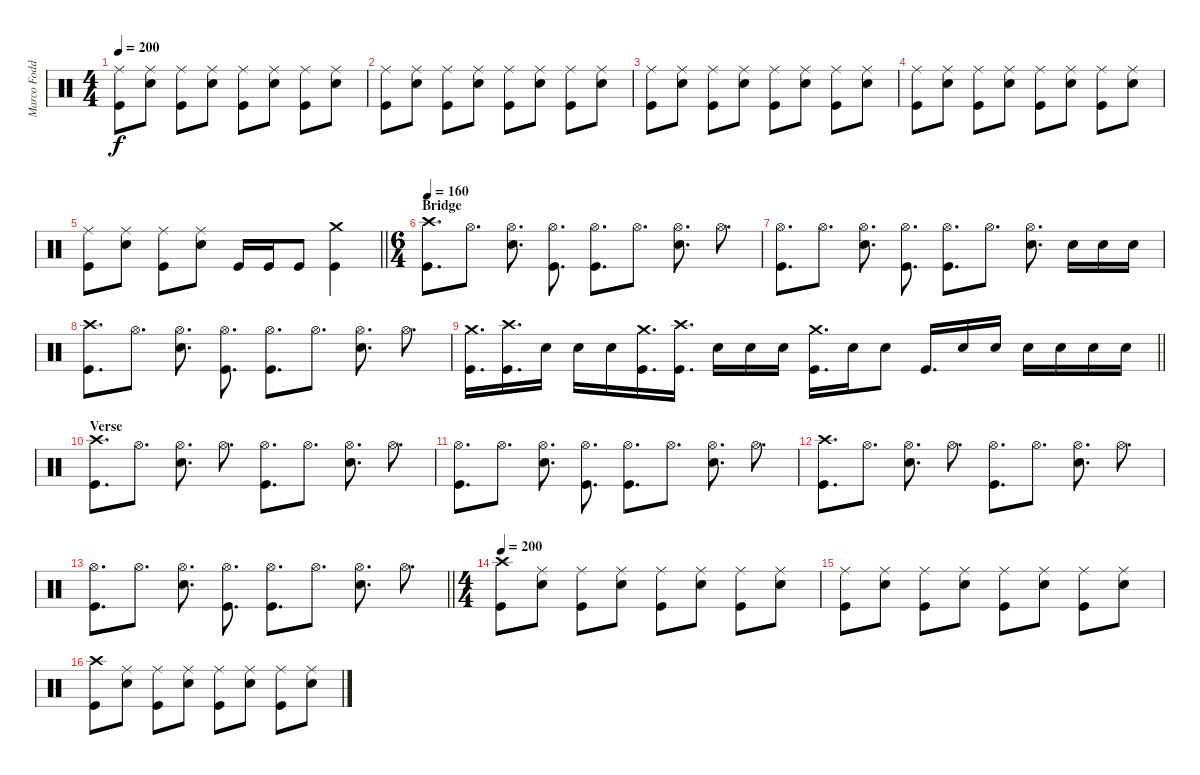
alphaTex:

\track ("Marco Foddis" "Marco Fodd") {instrument percussion}
\staff {score}
\articulation defaults
\ts (4 4)
\tempo 200
\clef neutral
\ks c
("Ride (middle)" "Kick (hit)").8{dy f} ("Ride (middle)" "Snare (hit) 2").8 ("Ride (middle)" "Kick (hit)").8 ("Ride (middle)" "Snare (hit) 2").8 ("Ride (middle)" "Kick (hit)").8 ("Ride (middle)" "Snare (hit) 2").8 ("Ride (middle)" "Kick (hit)").8 ("Ride (middle)" "Snare (hit) 2").8 |
("Ride (middle)" "Kick (hit)").8 ("Ride (middle)" "Snare (hit) 2").8 ("Ride (middle)" "Kick (hit)").8 ("Ride (middle)" "Snare (hit) 2").8 ("Ride (middle)" "Kick (hit)").8 ("Ride (middle)" "Snare (hit) 2").8 ("Ride (middle)" "Kick (hit)").8 ("Ride (middle)" "Snare (hit) 2").8 |
("Ride (middle)" "Kick (hit)").8 ("Ride (middle)" "Snare (hit) 2").8 ("Ride (middle)" "Kick (hit)").8 ("Ride (middle)" "Snare (hit) 2").8 ("Ride (middle)" "Kick (hit)").8 ("Ride (middle)" "Snare (hit) 2").8 ("Ride (middle)" "Kick (hit)").8 ("Ride (middle)" "Snare (hit) 2").8 |
("Ride (middle)" "Kick (hit)").8 ("Ride (middle)" "Snare (hit) 2").8 ("Ride (middle)" "Kick (hit)").8 ("Ride (middle)" "Snare (hit) 2").8 ("Ride (middle)" "Kick (hit)").8 ("Ride (middle)" "Snare (hit) 2").8 ("Ride (middle)" "Kick (hit)").8 ("Ride (middle)" "Snare (hit) 2").8 |
\barLineRight lightlight
("Ride (middle)" "Kick (hit)").8 ("Ride (middle)" "Snare (hit) 2").8 ("Ride (middle)" "Kick (hit)").8 ("Ride (middle)" "Snare (hit) 2").8 "Kick (hit)".16 "Kick (hit)".16 "Kick (hit)".8 ("Crash medium (hit)" "Kick (hit)").4 |
\ts (6 4)
\section ("" "Bridge")
\tempo 160
("Crash high (hit)" "Kick (hit)").8{d} "Hi-Hat (open)".8{d} ("Hi-Hat (open)" "Snare (hit) 2").8{d} ("Hi-Hat (open)" "Kick (hit)").8{d} ("Hi-Hat (open)" "Kick (hit)").8{d} "Hi-Hat (open)".8{d} ("Hi-Hat (open)" "Snare (hit) 2").8{d} "Hi-Hat (open)".8{d} |
("Hi-Hat (open)" "Kick (hit)").8{d} "Hi-Hat (open)".8{d} ("Hi-Hat (open)" "Snare (hit) 2").8{d} ("Hi-Hat (open)" "Kick (hit)").8{d} ("Hi-Hat (open)" "Kick (hit)").8{d} "Hi-Hat (open)".8{d} ("Hi-Hat (open)" "Snare (hit) 2").8{d} "Snare (hit) 2".16 "Snare (hit) 2".16 "Snare (hit) 2".16 |
("Crash high (hit)" "Kick (hit)").8{d} "Hi-Hat (open)".8{d} ("Hi-Hat (open)" "Snare (hit) 2").8{d} ("Hi-Hat (open)" "Kick (hit)").8{d} ("Hi-Hat (open)" "Kick (hit)").8{d} "Hi-Hat (open)".8{d} ("Hi-Hat (open)" "Snare (hit) 2").8{d} "Hi-Hat (open)".8{d} |
\barLineRight lightlight
("Crash medium (hit)" "Kick (hit)").16{d} ("Crash high (hit)" "Kick (hit)").16{d} "Snare (hit) 2".16 "Snare (hit) 2".16 "Snare (hit) 2".16 ("Crash medium (hit)" "Kick (hit)").16{d} ("Crash high (hit)" "Kick (hit)").16{d} "Snare (hit) 2".16 "Snare (hit) 2".16 "Snare (hit) 2".16 ("Crash medium (hit)" "Kick (hit)").16{d} "Snare (hit) 2".16 "Snare (hit) 2".8 "Kick (hit)".16{d} "Snare (hit) 2".16 "Snare (hit) 2".16 "Snare (hit) 2".16 "Snare (hit) 2".16 "Snare (hit) 2".16 "Snare (hit) 2".16 |
\section ("" "Verse")
("Crash high (hit)" "Kick (hit)").8{d} "Hi-Hat (open)".8{d} ("Hi-Hat (open)" "Snare (hit) 2").8{d} "Hi-Hat (open)".8{d} ("Hi-Hat (open)" "Kick (hit)").8{d} "Hi-Hat (open)".8{d} ("Hi-Hat (open)" "Snare (hit) 2").8{d} "Hi-Hat (open)".8{d} |
("Hi-Hat (open)" "Kick (hit)").8{d} "Hi-Hat (open)".8{d} ("Hi-Hat (open)" "Snare (hit) 2").8{d} ("Hi-Hat (open)" "Kick (hit)").8{d} ("Hi-Hat (open)" "Kick (hit)").8{d} "Hi-Hat (open)".8{d} ("Hi-Hat (open)" "Snare (hit) 2").8{d} "Hi-Hat (open)".8{d} |
("Crash high (hit)" "Kick (hit)").8{d} "Hi-Hat (open)".8{d} ("Hi-Hat (open)" "Snare (hit) 2").8{d} "Hi-Hat (open)".8{d} ("Hi-Hat (open)" "Kick (hit)").8{d} "Hi-Hat (open)".8{d} ("Hi-Hat (open)" "Snare (hit) 2").8{d} "Hi-Hat (open)".8{d} |
\barLineRight lightlight
("Hi-Hat (open)" "Kick (hit)").8{d} "Hi-Hat (open)".8{d} ("Hi-Hat (open)" "Snare (hit) 2").8{d} ("Hi-Hat (open)" "Kick (hit)").8{d} ("Hi-Hat (open)" "Kick (hit)").8{d} "Hi-Hat (open)".8{d} ("Hi-Hat (open)" "Snare (hit) 2").8{d} "Hi-Hat (open)".8{d} |
\ts (4 4)
\tempo 200
("Crash high (hit)" "Kick (hit)").8 ("Ride (middle)" "Snare (hit) 2").8 ("Ride (middle)" "Kick (hit)").8 ("Ride (middle)" "Snare (hit) 2").8 ("Ride (middle)" "Kick (hit)").8 ("Ride (middle)" "Snare (hit) 2").8 ("Ride (middle)" "Kick (hit)").8 ("Ride (middle)" "Snare (hit) 2").8 |
("Ride (middle)" "Kick (hit)").8 ("Ride (middle)" "Snare (hit) 2").8 ("Ride (middle)" "Kick (hit)").8 ("Ride (middle)" "Snare (hit) 2").8 ("Ride (middle)" "Kick (hit)").8 ("Ride (middle)" "Snare (hit) 2").8 ("Ride (middle)" "Kick (hit)").8 ("Ride (middle)" "Snare (hit) 2").8 |
("Crash high (hit)" "Kick (hit)").8 ("Ride (middle)" "Snare (hit) 2").8 ("Ride (middle)" "Kick (hit)").8 ("Ride (middle)" "Snare (hit) 2").8 ("Ride (middle)" "Kick (hit)").8 ("Ride (middle)" "Snare (hit) 2").8 ("Ride (middle)" "Kick (hit)").8 ("Ride (middle)" "Snare (hit) 2").8
